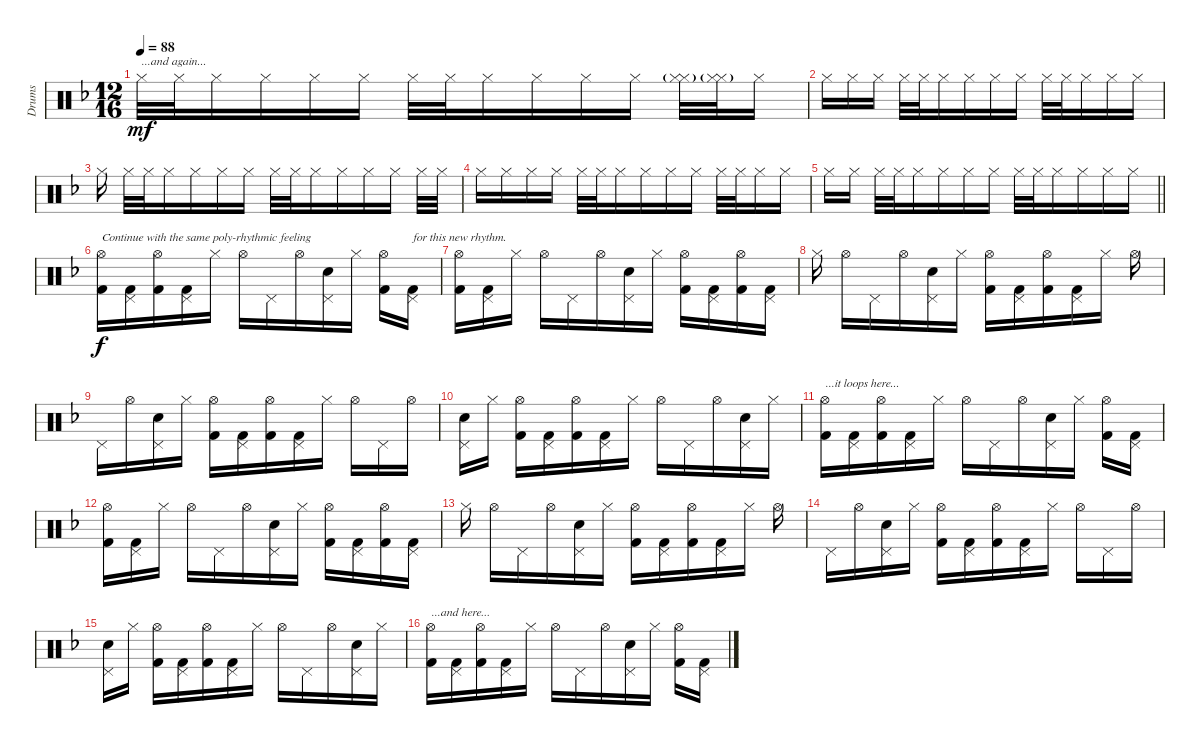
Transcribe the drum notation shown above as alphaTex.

\track ("Drums" "Drums") {instrument percussion}
\staff {score}
\articulation defaults
\ts (12 16)
\tempo 88
\clef neutral
\ks dminor "Hi-Hat (closed)".32{txt "...and again..." dy mf} "Hi-Hat (closed)".32 "Hi-Hat (closed)".16 "Hi-Hat (closed)".16{beam merge} "Hi-Hat (closed)".16 "Hi-Hat (closed)".16{beam split} "Hi-Hat (closed)".32 "Hi-Hat (closed)".32{beam merge} "Hi-Hat (closed)".16 "Hi-Hat (closed)".16 "Hi-Hat (closed)".16{beam merge} "Hi-Hat (closed)".16{beam split}
("Hi-Hat (closed)" "Hi-Hat (closed)"{g}).32 ("Hi-Hat (closed)" "Hi-Hat (closed)"{g}).32 "Hi-Hat (closed)".16 |
"Hi-Hat (closed)".16 "Hi-Hat (closed)".16 "Hi-Hat (closed)".16{beam split} "Hi-Hat (closed)".32 "Hi-Hat (closed)".32{beam merge} "Hi-Hat (closed)".16 "Hi-Hat (closed)".16{beam merge} "Hi-Hat (closed)".16{beam merge} "Hi-Hat (closed)".16{beam split} "Hi-Hat (closed)".32 "Hi-Hat (closed)".32{beam merge} "Hi-Hat (closed)".16 "Hi-Hat (closed)".16 "Hi-Hat (closed)".16 |
"Hi-Hat (closed)".16{beam split} "Hi-Hat (closed)".32 "Hi-Hat (closed)".32{beam merge} "Hi-Hat (closed)".16{beam merge} "Hi-Hat (closed)".16 "Hi-Hat (closed)".16{beam merge} "Hi-Hat (closed)".16{beam split} "Hi-Hat (closed)".32 "Hi-Hat (closed)".32{beam merge} "Hi-Hat (closed)".16 "Hi-Hat (closed)".16{beam merge} "Hi-Hat (closed)".16{beam merge} "Hi-Hat (closed)".16{beam split} "Hi-Hat (closed)".32 "Hi-Hat (closed)".32 |
"Hi-Hat (closed)".16 "Hi-Hat (closed)".16 "Hi-Hat (closed)".16{beam merge} "Hi-Hat (closed)".16{beam split} "Hi-Hat (closed)".32 "Hi-Hat (closed)".32{beam merge} "Hi-Hat (closed)".16{beam merge} "Hi-Hat (closed)".16{beam merge} "Hi-Hat (closed)".16{beam merge} "Hi-Hat (closed)".16{beam split} "Hi-Hat (closed)".32 "Hi-Hat (closed)".32{beam merge} "Hi-Hat (closed)".16 "Hi-Hat (closed)".16 |
\barLineRight lightlight "Hi-Hat (closed)".16{beam merge} "Hi-Hat (closed)".16{beam split} "Hi-Hat (closed)".32 "Hi-Hat (closed)".32{beam merge} "Hi-Hat (closed)".16{beam merge} "Hi-Hat (closed)".16{beam merge} "Hi-Hat (closed)".16{beam merge} "Hi-Hat (closed)".16{beam split} "Hi-Hat (closed)".32 "Hi-Hat (closed)".32{beam merge} "Hi-Hat (closed)".16{beam merge} "Hi-Hat (closed)".16{beam merge} "Hi-Hat (closed)".16{beam merge} "Hi-Hat (closed)".16
|
("Hi-Hat (open)" "Kick (hit) 2").16{txt "Continue with the same poly-rhythmic feeling" dy f beam merge} ("Pedal Hi-Hat (hit)" "Kick (hit) 2").16 ("Hi-Hat (open)" "Kick (hit) 2").16{beam merge} ("Pedal Hi-Hat (hit)" "Kick (hit) 2").16{beam merge} "Hi-Hat (closed)".16{beam split} "Hi-Hat (open)".16{beam merge} "Pedal Hi-Hat (hit)".16{beam merge} "Hi-Hat (open)".16{beam merge} ("Pedal Hi-Hat (hit)" "Snare (hit) 2").16{beam merge} "Hi-Hat (closed)".16{beam split} ("Hi-Hat (open)" "Kick (hit) 2").16{beam merge} ("Pedal Hi-Hat (hit)" "Kick (hit) 2").16{txt "for this new rhythm."} |
("Hi-Hat (open)" "Kick (hit) 2").16{beam merge} ("Pedal Hi-Hat (hit)" "Kick (hit) 2").16{beam merge} "Hi-Hat (closed)".16 "Hi-Hat (open)".16 "Pedal Hi-Hat (hit)".16{beam merge} "Hi-Hat (open)".16{beam merge} ("Pedal Hi-Hat (hit)" "Snare (hit) 2").16{beam merge} "Hi-Hat (closed)".16{beam split} ("Hi-Hat (open)" "Kick (hit) 2").16{beam merge} ("Pedal Hi-Hat (hit)" "Kick (hit) 2").16 ("Hi-Hat (open)" "Kick (hit) 2").16{beam merge} ("Pedal Hi-Hat (hit)" "Kick (hit) 2").16 |
"Hi-Hat (closed)".16{beam split} "Hi-Hat (open)".16 "Pedal Hi-Hat (hit)".16{beam merge} "Hi-Hat (open)".16{beam merge} ("Pedal Hi-Hat (hit)" "Snare (hit) 2").16{beam merge} "Hi-Hat (closed)".16{beam split} ("Hi-Hat (open)" "Kick (hit) 2").16{beam merge} ("Pedal Hi-Hat (hit)" "Kick (hit) 2").16 ("Hi-Hat (open)" "Kick (hit) 2").16{beam merge} ("Pedal Hi-Hat (hit)" "Kick (hit) 2").16{beam merge} "Hi-Hat (closed)".16{beam split} "Hi-Hat (open)".16 |
"Pedal Hi-Hat (hit)".16{beam merge} "Hi-Hat (open)".16{beam merge} ("Pedal Hi-Hat (hit)" "Snare (hit) 2").16{beam merge} "Hi-Hat (closed)".16{beam split} ("Hi-Hat (open)" "Kick (hit) 2").16{beam merge} ("Pedal Hi-Hat (hit)" "Kick (hit) 2").16{beam merge} ("Hi-Hat (open)" "Kick (hit) 2").16{beam merge} ("Pedal Hi-Hat (hit)" "Kick (hit) 2").16{beam merge} "Hi-Hat (closed)".16{beam split} "Hi-Hat (open)".16{beam merge} "Pedal Hi-Hat (hit)".16{beam merge} "Hi-Hat (open)".16 |
("Pedal Hi-Hat (hit)" "Snare (hit) 2").16{beam merge} "Hi-Hat (closed)".16{beam split} ("Hi-Hat (open)" "Kick (hit) 2").16{beam merge} ("Pedal Hi-Hat (hit)" "Kick (hit) 2").16{beam merge} ("Hi-Hat (open)" "Kick (hit) 2").16{beam merge} ("Pedal Hi-Hat (hit)" "Kick (hit) 2").16{beam merge} "Hi-Hat (closed)".16{beam split} "Hi-Hat (open)".16 "Pedal Hi-Hat (hit)".16{beam merge} "Hi-Hat (open)".16{beam merge} ("Pedal Hi-Hat (hit)" "Snare (hit) 2").16{beam merge} "Hi-Hat (closed)".16 |
("Hi-Hat (open)" "Kick (hit) 2").16{txt "...it loops here..." beam merge} ("Pedal Hi-Hat (hit)" "Kick (hit) 2").16 ("Hi-Hat (open)" "Kick (hit) 2").16{beam merge} ("Pedal Hi-Hat (hit)" "Kick (hit) 2").16{beam merge} "Hi-Hat (closed)".16{beam split} "Hi-Hat (open)".16{beam merge} "Pedal Hi-Hat (hit)".16{beam merge} "Hi-Hat (open)".16{beam merge} ("Pedal Hi-Hat (hit)" "Snare (hit) 2").16{beam merge} "Hi-Hat (closed)".16{beam split} ("Hi-Hat (open)" "Kick (hit) 2").16{beam merge} ("Pedal Hi-Hat (hit)" "Kick (hit) 2").16 |
("Hi-Hat (open)" "Kick (hit) 2").16{beam merge} ("Pedal Hi-Hat (hit)" "Kick (hit) 2").16{beam merge} "Hi-Hat (closed)".16 "Hi-Hat (open)".16 "Pedal Hi-Hat (hit)".16{beam merge} "Hi-Hat (open)".16{beam merge} ("Pedal Hi-Hat (hit)" "Snare (hit) 2").16{beam merge} "Hi-Hat (closed)".16{beam split} ("Hi-Hat (open)" "Kick (hit) 2").16{beam merge} ("Pedal Hi-Hat (hit)" "Kick (hit) 2").16 ("Hi-Hat (open)" "Kick (hit) 2").16{beam merge} ("Pedal Hi-Hat (hit)" "Kick (hit) 2").16 |
"Hi-Hat (closed)".16{beam split} "Hi-Hat (open)".16 "Pedal Hi-Hat (hit)".16{beam merge} "Hi-Hat (open)".16{beam merge} ("Pedal Hi-Hat (hit)" "Snare (hit) 2").16{beam merge} "Hi-Hat (closed)".16{beam split} ("Hi-Hat (open)" "Kick (hit) 2").16{beam merge} ("Pedal Hi-Hat (hit)" "Kick (hit) 2").16 ("Hi-Hat (open)" "Kick (hit) 2").16{beam merge} ("Pedal Hi-Hat (hit)" "Kick (hit) 2").16{beam merge} "Hi-Hat (closed)".16{beam split} "Hi-Hat (open)".16 |
"Pedal Hi-Hat (hit)".16{beam merge} "Hi-Hat (open)".16{beam merge} ("Pedal Hi-Hat (hit)" "Snare (hit) 2").16{beam merge} "Hi-Hat (closed)".16{beam split} ("Hi-Hat (open)" "Kick (hit) 2").16{beam merge} ("Pedal Hi-Hat (hit)" "Kick (hit) 2").16{beam merge} ("Hi-Hat (open)" "Kick (hit) 2").16{beam merge} ("Pedal Hi-Hat (hit)" "Kick (hit) 2").16{beam merge} "Hi-Hat (closed)".16{beam split} "Hi-Hat (open)".16{beam merge} "Pedal Hi-Hat (hit)".16{beam merge} "Hi-Hat (open)".16 |
("Pedal Hi-Hat (hit)" "Snare (hit) 2").16{beam merge} "Hi-Hat (closed)".16{beam split} ("Hi-Hat (open)" "Kick (hit) 2").16{beam merge} ("Pedal Hi-Hat (hit)" "Kick (hit) 2").16{beam merge} ("Hi-Hat (open)" "Kick (hit) 2").16{beam merge} ("Pedal Hi-Hat (hit)" "Kick (hit) 2").16{beam merge} "Hi-Hat (closed)".16{beam split} "Hi-Hat (open)".16 "Pedal Hi-Hat (hit)".16{beam merge} "Hi-Hat (open)".16{beam merge} ("Pedal Hi-Hat (hit)" "Snare (hit) 2").16{beam merge} "Hi-Hat (closed)".16 |
("Hi-Hat (open)" "Kick (hit) 2").16{txt "...and here..." beam merge} ("Pedal Hi-Hat (hit)" "Kick (hit) 2").16 ("Hi-Hat (open)" "Kick (hit) 2").16{beam merge} ("Pedal Hi-Hat (hit)" "Kick (hit) 2").16{beam merge} "Hi-Hat (closed)".16{beam split} "Hi-Hat (open)".16{beam merge} "Pedal Hi-Hat (hit)".16{beam merge} "Hi-Hat (open)".16{beam merge} ("Pedal Hi-Hat (hit)" "Snare (hit) 2").16{beam merge} "Hi-Hat (closed)".16{beam split} ("Hi-Hat (open)" "Kick (hit) 2").16{beam merge} ("Pedal Hi-Hat (hit)" "Kick (hit) 2").16
